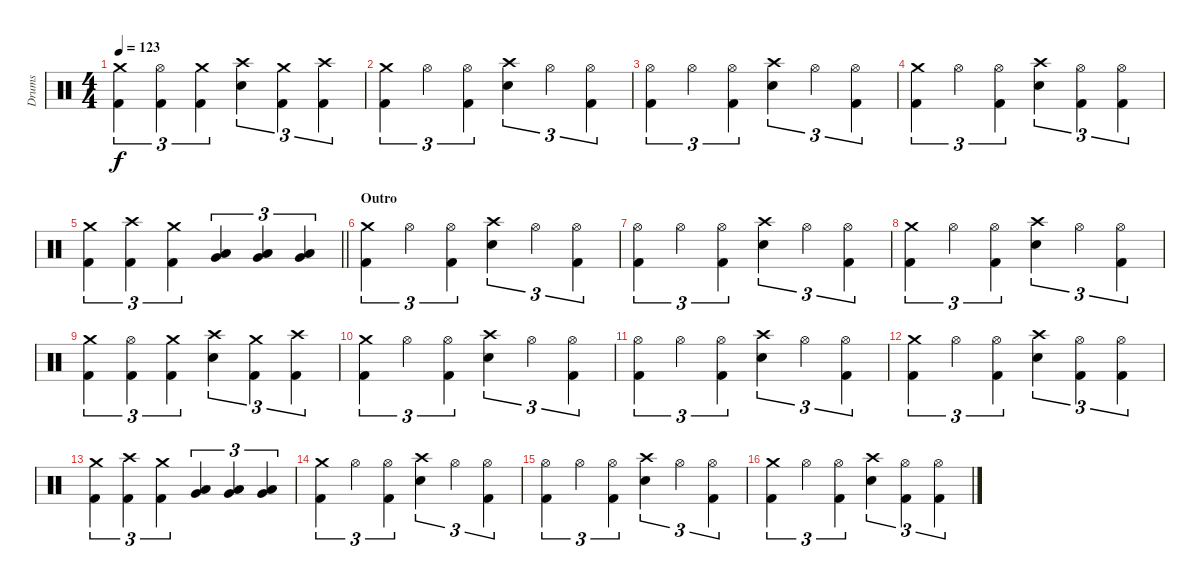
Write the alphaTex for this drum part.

\track ("Drums" "Drums") {instrument percussion}
\staff {score}
\articulation defaults
\ts (4 4)
\tempo 123
\clef neutral
\ks c
("Crash medium (hit)" "Kick (hit) 2").4{tu (3 2) dy f} ("Hi-Hat (open)" "Kick (hit) 2").4{tu (3 2)} ("Crash medium (hit)" "Kick (hit) 2").4{tu (3 2)} ("Crash high (hit)" "Electric Snare (hit)").4{tu (3 2)} ("Crash medium (hit)" "Kick (hit) 2").4{tu (3 2)} ("Crash high (hit)" "Kick (hit) 2").4{tu (3 2)} |
("Crash medium (hit)" "Kick (hit) 2").4{tu (3 2)} "Hi-Hat (open)".4{tu (3 2)} ("Hi-Hat (open)" "Kick (hit) 2").4{tu (3 2)} ("Crash high (hit)" "Electric Snare (hit)").4{tu (3 2)} "Hi-Hat (open)".4{tu (3 2)} ("Hi-Hat (open)" "Kick (hit) 2").4{tu (3 2)} |
("Hi-Hat (open)" "Kick (hit) 2").4{tu (3 2)} "Hi-Hat (open)".4{tu (3 2)} ("Hi-Hat (open)" "Kick (hit) 2").4{tu (3 2)} ("Crash high (hit)" "Electric Snare (hit)").4{tu (3 2)} "Hi-Hat (open)".4{tu (3 2)} ("Hi-Hat (open)" "Kick (hit) 2").4{tu (3 2)} |
("Crash medium (hit)" "Kick (hit) 2").4{tu (3 2)} "Hi-Hat (open)".4{tu (3 2)} ("Hi-Hat (open)" "Kick (hit) 2").4{tu (3 2)} ("Crash high (hit)" "Electric Snare (hit)").4{tu (3 2)} ("Hi-Hat (open)" "Kick (hit) 2").4{tu (3 2)} ("Hi-Hat (open)" "Kick (hit) 2").4{tu (3 2)} |
\barLineRight lightlight
("Crash medium (hit)" "Kick (hit) 2").4{tu (3 2)} ("Crash high (hit)" "Kick (hit) 2").4{tu (3 2)} ("Crash medium (hit)" "Kick (hit) 2").4{tu (3 2)} ("Low Tom (hit)" "Very Low Tom (hit)").4{tu (3 2)} ("Low Tom (hit)" "Very Low Tom (hit)").4{tu (3 2)} ("Low Tom (hit)" "Very Low Tom (hit)").4{tu (3 2)} |
\section ("" "Outro")
("Crash medium (hit)" "Kick (hit) 2").4{tu (3 2)} "Hi-Hat (open)".4{tu (3 2)} ("Hi-Hat (open)" "Kick (hit) 2").4{tu (3 2)} ("Crash high (hit)" "Electric Snare (hit)").4{tu (3 2)} "Hi-Hat (open)".4{tu (3 2)} ("Hi-Hat (open)" "Kick (hit) 2").4{tu (3 2)} |
("Hi-Hat (open)" "Kick (hit) 2").4{tu (3 2)} "Hi-Hat (open)".4{tu (3 2)} ("Hi-Hat (open)" "Kick (hit) 2").4{tu (3 2)} ("Crash high (hit)" "Electric Snare (hit)").4{tu (3 2)} "Hi-Hat (open)".4{tu (3 2)} ("Hi-Hat (open)" "Kick (hit) 2").4{tu (3 2)} |
("Crash medium (hit)" "Kick (hit) 2").4{tu (3 2)} "Hi-Hat (open)".4{tu (3 2)} ("Hi-Hat (open)" "Kick (hit) 2").4{tu (3 2)} ("Crash high (hit)" "Electric Snare (hit)").4{tu (3 2)} "Hi-Hat (open)".4{tu (3 2)} ("Hi-Hat (open)" "Kick (hit) 2").4{tu (3 2)} |
("Crash medium (hit)" "Kick (hit) 2").4{tu (3 2)} ("Hi-Hat (open)" "Kick (hit) 2").4{tu (3 2)} ("Crash medium (hit)" "Kick (hit) 2").4{tu (3 2)} ("Crash high (hit)" "Electric Snare (hit)").4{tu (3 2)} ("Crash medium (hit)" "Kick (hit) 2").4{tu (3 2)} ("Crash high (hit)" "Kick (hit) 2").4{tu (3 2)} |
("Crash medium (hit)" "Kick (hit) 2").4{tu (3 2)} "Hi-Hat (open)".4{tu (3 2)} ("Hi-Hat (open)" "Kick (hit) 2").4{tu (3 2)} ("Crash high (hit)" "Electric Snare (hit)").4{tu (3 2)} "Hi-Hat (open)".4{tu (3 2)} ("Hi-Hat (open)" "Kick (hit) 2").4{tu (3 2)} |
("Hi-Hat (open)" "Kick (hit) 2").4{tu (3 2)} "Hi-Hat (open)".4{tu (3 2)} ("Hi-Hat (open)" "Kick (hit) 2").4{tu (3 2)} ("Crash high (hit)" "Electric Snare (hit)").4{tu (3 2)} "Hi-Hat (open)".4{tu (3 2)} ("Hi-Hat (open)" "Kick (hit) 2").4{tu (3 2)} |
("Crash medium (hit)" "Kick (hit) 2").4{tu (3 2)} "Hi-Hat (open)".4{tu (3 2)} ("Hi-Hat (open)" "Kick (hit) 2").4{tu (3 2)} ("Crash high (hit)" "Electric Snare (hit)").4{tu (3 2)} ("Hi-Hat (open)" "Kick (hit) 2").4{tu (3 2)} ("Hi-Hat (open)" "Kick (hit) 2").4{tu (3 2)} |
("Crash medium (hit)" "Kick (hit) 2").4{tu (3 2)} ("Crash high (hit)" "Kick (hit) 2").4{tu (3 2)} ("Crash medium (hit)" "Kick (hit) 2").4{tu (3 2)} ("Low Tom (hit)" "Very Low Tom (hit)").4{tu (3 2)} ("Low Tom (hit)" "Very Low Tom (hit)").4{tu (3 2)} ("Low Tom (hit)" "Very Low Tom (hit)").4{tu (3 2)} |
("Crash medium (hit)" "Kick (hit) 2").4{tu (3 2)} "Hi-Hat (open)".4{tu (3 2)} ("Hi-Hat (open)" "Kick (hit) 2").4{tu (3 2)} ("Crash high (hit)" "Electric Snare (hit)").4{tu (3 2)} "Hi-Hat (open)".4{tu (3 2)} ("Hi-Hat (open)" "Kick (hit) 2").4{tu (3 2)} |
("Hi-Hat (open)" "Kick (hit) 2").4{tu (3 2)} "Hi-Hat (open)".4{tu (3 2)} ("Hi-Hat (open)" "Kick (hit) 2").4{tu (3 2)} ("Crash high (hit)" "Electric Snare (hit)").4{tu (3 2)} "Hi-Hat (open)".4{tu (3 2)} ("Hi-Hat (open)" "Kick (hit) 2").4{tu (3 2)} |
("Crash medium (hit)" "Kick (hit) 2").4{tu (3 2)} "Hi-Hat (open)".4{tu (3 2)} ("Hi-Hat (open)" "Kick (hit) 2").4{tu (3 2)} ("Crash high (hit)" "Electric Snare (hit)").4{tu (3 2)} ("Hi-Hat (open)" "Kick (hit) 2").4{tu (3 2)} ("Hi-Hat (open)" "Kick (hit) 2").4{tu (3 2)}
